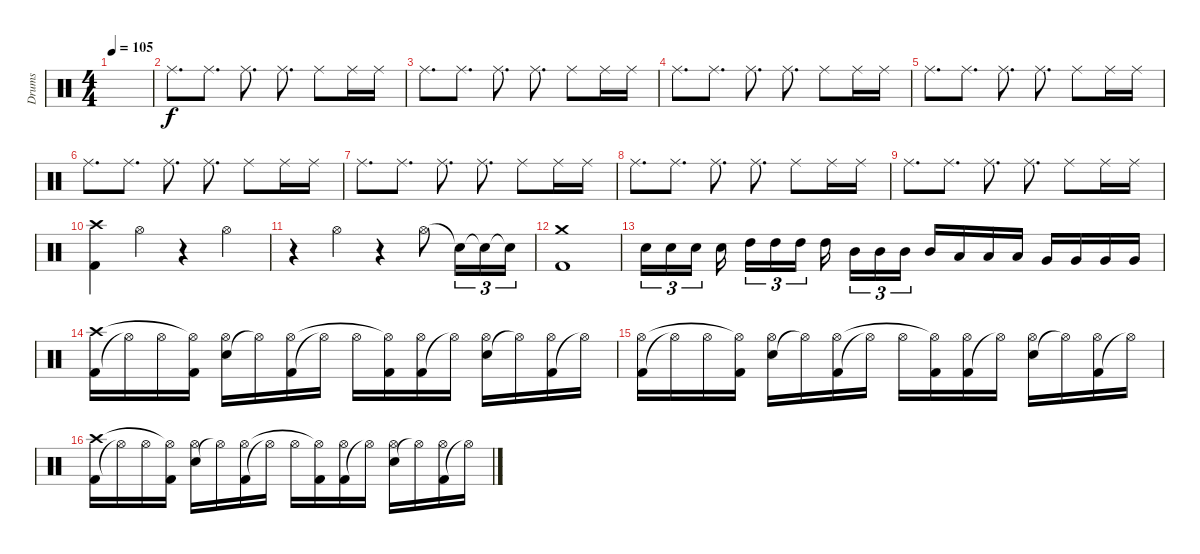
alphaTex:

\track ("Drums" "Drums") {instrument percussion}
\staff {score}
\articulation defaults
\ts (4 4)
\tempo 105
\clef neutral
\ks c
|
"Ride (middle)".8{d dy f} "Ride (middle)".8{d} "Ride (middle)".8{d} "Ride (middle)".8{d} "Ride (middle)".8 "Ride (middle)".16 "Ride (middle)".16 |
"Ride (middle)".8{d} "Ride (middle)".8{d} "Ride (middle)".8{d} "Ride (middle)".8{d} "Ride (middle)".8 "Ride (middle)".16 "Ride (middle)".16 |
"Ride (middle)".8{d} "Ride (middle)".8{d} "Ride (middle)".8{d} "Ride (middle)".8{d} "Ride (middle)".8 "Ride (middle)".16 "Ride (middle)".16 |
"Ride (middle)".8{d} "Ride (middle)".8{d} "Ride (middle)".8{d} "Ride (middle)".8{d} "Ride (middle)".8 "Ride (middle)".16 "Ride (middle)".16 |
"Ride (middle)".8{d} "Ride (middle)".8{d} "Ride (middle)".8{d} "Ride (middle)".8{d} "Ride (middle)".8 "Ride (middle)".16 "Ride (middle)".16 |
"Ride (middle)".8{d} "Ride (middle)".8{d} "Ride (middle)".8{d} "Ride (middle)".8{d} "Ride (middle)".8 "Ride (middle)".16 "Ride (middle)".16 |
"Ride (middle)".8{d} "Ride (middle)".8{d} "Ride (middle)".8{d} "Ride (middle)".8{d} "Ride (middle)".8 "Ride (middle)".16 "Ride (middle)".16 |
"Ride (middle)".8{d} "Ride (middle)".8{d} "Ride (middle)".8{d} "Ride (middle)".8{d} "Ride (middle)".8 "Ride (middle)".16 "Ride (middle)".16 |
("Crash high (hit)" "Kick (hit) 2").4 "Hi-Hat (open)".4 r.4 "Hi-Hat (open)".4 |
r.4 "Hi-Hat (open)".4 r.4 "Hi-Hat (open)".8 "Snare (hit)"{t}.16{tu (3 2)} "Snare (hit)"{t}.16{tu (3 2)} "Snare (hit)"{t}.16{tu (3 2)} |
("Crash medium (hit)" "Kick (hit) 2").1 |
"Snare (hit) 2".16{tu (3 2)} "Snare (hit) 2".16{tu (3 2)} "Snare (hit) 2".16{tu (3 2) beam splitsecondary} "Snare (hit) 2".16{beam splitsecondary} "High Tom (hit)".16{tu (3 2)} "High Tom (hit)".16{tu (3 2)} "High Tom (hit)".16{tu (3 2) beam splitsecondary} "High Tom (hit)".16{beam splitsecondary} "Mid Tom (hit)".16{tu (3 2)} "Mid Tom (hit)".16{tu (3 2)} "Mid Tom (hit)".16{tu (3 2)} "Mid Tom (hit)".16 "Low Tom (hit)".16 "Low Tom (hit)".16 "Low Tom (hit)".16 "Very Low Tom (hit)".16 "Very Low Tom (hit)".16 "Very Low Tom (hit)".16 "Very Low Tom (hit)".16 |
("Kick (hit) 2" "Crash high (hit)").16 "Hi-Hat (open)"{t}.16 "Hi-Hat (open)".16 ("Kick (hit) 2" "Hi-Hat (open)"{t}).16 ("Snare (hit) 2" "Hi-Hat (open)").16 "Hi-Hat (open)"{t}.16 ("Kick (hit) 2" "Hi-Hat (open)").16 "Hi-Hat (open)"{t}.16 "Hi-Hat (open)".16 ("Kick (hit) 2" "Hi-Hat (open)"{t}).16 ("Kick (hit) 2" "Hi-Hat (open)").16 "Hi-Hat (open)"{t}.16 ("Snare (hit) 2" "Hi-Hat (open)").16 "Hi-Hat (open)"{t}.16 ("Kick (hit) 2" "Hi-Hat (open)").16 "Hi-Hat (open)"{t}.16 |
("Kick (hit) 2" "Hi-Hat (open)").16 "Hi-Hat (open)"{t}.16 "Hi-Hat (open)".16 ("Kick (hit) 2" "Hi-Hat (open)"{t}).16 ("Snare (hit) 2" "Hi-Hat (open)").16 "Hi-Hat (open)"{t}.16 ("Kick (hit) 2" "Hi-Hat (open)").16 "Hi-Hat (open)"{t}.16 "Hi-Hat (open)".16 ("Kick (hit) 2" "Hi-Hat (open)"{t}).16 ("Kick (hit) 2" "Hi-Hat (open)").16 "Hi-Hat (open)"{t}.16 ("Snare (hit) 2" "Hi-Hat (open)").16 "Hi-Hat (open)"{t}.16 ("Kick (hit) 2" "Hi-Hat (open)").16 "Hi-Hat (open)"{t}.16 |
("Kick (hit) 2" "Crash high (hit)").16 "Hi-Hat (open)"{t}.16 "Hi-Hat (open)".16 ("Kick (hit) 2" "Hi-Hat (open)"{t}).16 ("Snare (hit) 2" "Hi-Hat (open)").16 "Hi-Hat (open)"{t}.16 ("Kick (hit) 2" "Hi-Hat (open)").16 "Hi-Hat (open)"{t}.16 "Hi-Hat (open)".16 ("Kick (hit) 2" "Hi-Hat (open)"{t}).16 ("Kick (hit) 2" "Hi-Hat (open)").16 "Hi-Hat (open)"{t}.16 ("Snare (hit) 2" "Hi-Hat (open)").16 "Hi-Hat (open)"{t}.16 ("Kick (hit) 2" "Hi-Hat (open)").16 "Hi-Hat (open)"{t}.16
